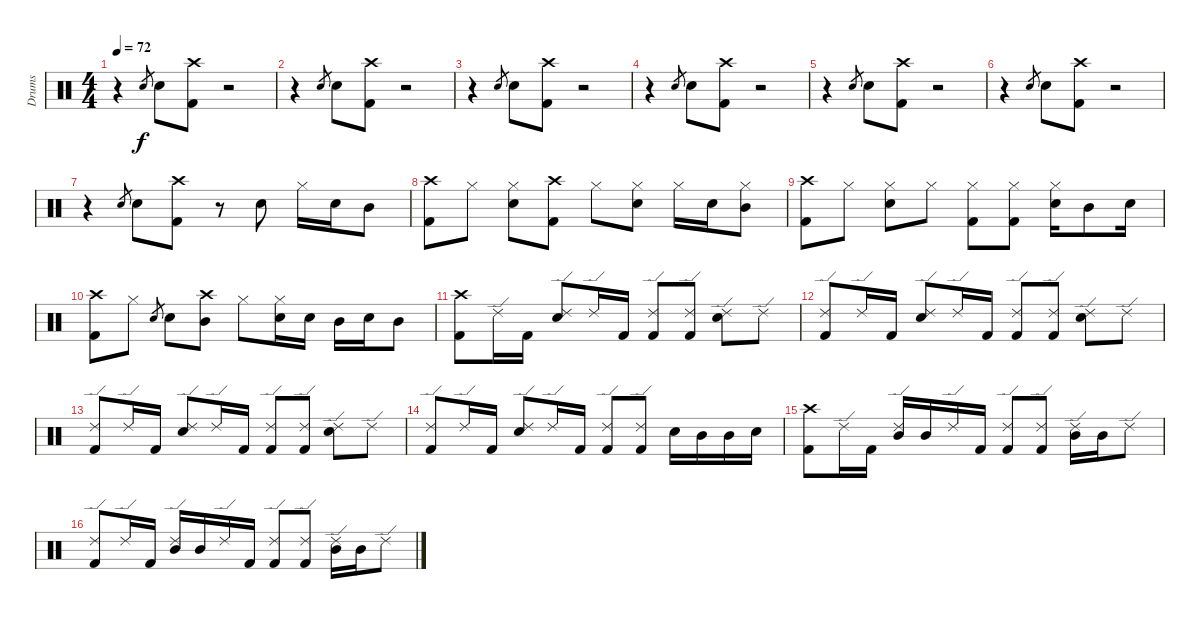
\track ("Drums" "Drums") {instrument percussion}
\staff {score}
\articulation defaults
\ts (4 4)
\tempo 72
\clef neutral
\ks c
r.4{dy f} "Electric Snare (hit)".8{gr} "Electric Snare (hit)".8 ("Crash high (hit)" "Kick (hit) 2").8 r.2 |
r.4 "Electric Snare (hit)".8{gr} "Electric Snare (hit)".8 ("Crash high (hit)" "Kick (hit) 2").8 r.2 |
r.4 "Electric Snare (hit)".8{gr} "Electric Snare (hit)".8 ("Crash high (hit)" "Kick (hit) 2").8 r.2 |
r.4 "Electric Snare (hit)".8{gr} "Electric Snare (hit)".8 ("Crash high (hit)" "Kick (hit) 2").8 r.2 |
r.4 "Electric Snare (hit)".8{gr} "Electric Snare (hit)".8 ("Crash high (hit)" "Kick (hit) 2").8 r.2 |
r.4 "Electric Snare (hit)".8{gr} "Electric Snare (hit)".8 ("Crash high (hit)" "Kick (hit) 2").8 r.2 |
r.4 "Electric Snare (hit)".8{gr} "Electric Snare (hit)".8 ("Crash high (hit)" "Kick (hit) 2").8 r.8 "Electric Snare (hit)".8 "Hi-Hat (closed)".16 "Electric Snare (hit)".16 "Mid Tom (hit)".8 |
("Crash high (hit)" "Kick (hit) 2").8 "Hi-Hat (closed)".8 ("Hi-Hat (closed)" "Electric Snare (hit)").8 ("Crash high (hit)" "Kick (hit) 2").8 "Hi-Hat (closed)".8 ("Hi-Hat (closed)" "Electric Snare (hit)").8 "Hi-Hat (closed)".16 "Electric Snare (hit)".16 ("Hi-Hat (closed)" "Mid Tom (hit)").8 |
("Crash high (hit)" "Kick (hit) 2").8 "Hi-Hat (closed)".8 ("Hi-Hat (closed)" "Electric Snare (hit)").8 "Hi-Hat (closed)".8 ("Hi-Hat (closed)" "Kick (hit) 2").8 ("Hi-Hat (closed)" "Kick (hit) 2").8 ("Hi-Hat (closed)" "Electric Snare (hit)").16 "Mid Tom (hit)".8 "Electric Snare (hit)".16 |
("Crash high (hit)" "Kick (hit) 2").8 "Hi-Hat (closed)".8 "Electric Snare (hit)".8{gr} "Electric Snare (hit)".8 ("Crash high (hit)" "Mid Tom (hit)").8 "Hi-Hat (closed)".8 ("Hi-Hat (closed)" "Electric Snare (hit)").16 "Electric Snare (hit)".16 "Mid Tom (hit)".16 "Electric Snare (hit)".16 "Mid Tom (hit)".8 |
("Crash high (hit)" "Kick (hit) 2").8 "Ride (edge) 2".16 "Kick (hit) 2".16 ("Ride (edge) 2" "Electric Snare (hit)").8 "Ride (edge) 2".16 "Kick (hit) 2".16 ("Ride (edge) 2" "Kick (hit) 2").8 ("Ride (edge) 2" "Kick (hit) 2").8 ("Ride (edge) 2" "Electric Snare (hit)").8 "Ride (edge) 2".8 |
("Ride (edge) 2" "Kick (hit) 2").8 "Ride (edge) 2".16 "Kick (hit) 2".16 ("Ride (edge) 2" "Electric Snare (hit)").8 "Ride (edge) 2".16 "Kick (hit) 2".16 ("Ride (edge) 2" "Kick (hit) 2").8 ("Ride (edge) 2" "Kick (hit) 2").8 ("Ride (edge) 2" "Electric Snare (hit)").8 "Ride (edge) 2".8 |
("Ride (edge) 2" "Kick (hit) 2").8 "Ride (edge) 2".16 "Kick (hit) 2".16 ("Ride (edge) 2" "Electric Snare (hit)").8 "Ride (edge) 2".16 "Kick (hit) 2".16 ("Ride (edge) 2" "Kick (hit) 2").8 ("Ride (edge) 2" "Kick (hit) 2").8 ("Ride (edge) 2" "Electric Snare (hit)").8 "Ride (edge) 2".8 |
("Ride (edge) 2" "Kick (hit) 2").8 "Ride (edge) 2".16 "Kick (hit) 2".16 ("Ride (edge) 2" "Electric Snare (hit)").8 "Ride (edge) 2".16 "Kick (hit) 2".16 ("Ride (edge) 2" "Kick (hit) 2").8 ("Ride (edge) 2" "Kick (hit) 2").8 "Electric Snare (hit)".16 "Mid Tom (hit)".16 "Mid Tom (hit)".16 "Electric Snare (hit)".16 |
("Crash high (hit)" "Kick (hit) 2").8 "Ride (edge) 2".16 "Kick (hit) 2".16 ("Ride (edge) 2" "Mid Tom (hit)").16 "Mid Tom (hit)".16 "Ride (edge) 2".16 "Kick (hit) 2".16 ("Ride (edge) 2" "Kick (hit) 2").8 ("Ride (edge) 2" "Kick (hit) 2").8 ("Ride (edge) 2" "Mid Tom (hit)").16 "Mid Tom (hit)".16 "Ride (edge) 2".8 |
("Ride (edge) 2" "Kick (hit) 2").8 "Ride (edge) 2".16 "Kick (hit) 2".16 ("Ride (edge) 2" "Mid Tom (hit)").16 "Mid Tom (hit)".16 "Ride (edge) 2".16 "Kick (hit) 2".16 ("Ride (edge) 2" "Kick (hit) 2").8 ("Ride (edge) 2" "Kick (hit) 2").8 ("Ride (edge) 2" "Mid Tom (hit)").16 "Mid Tom (hit)".16 "Ride (edge) 2".8
